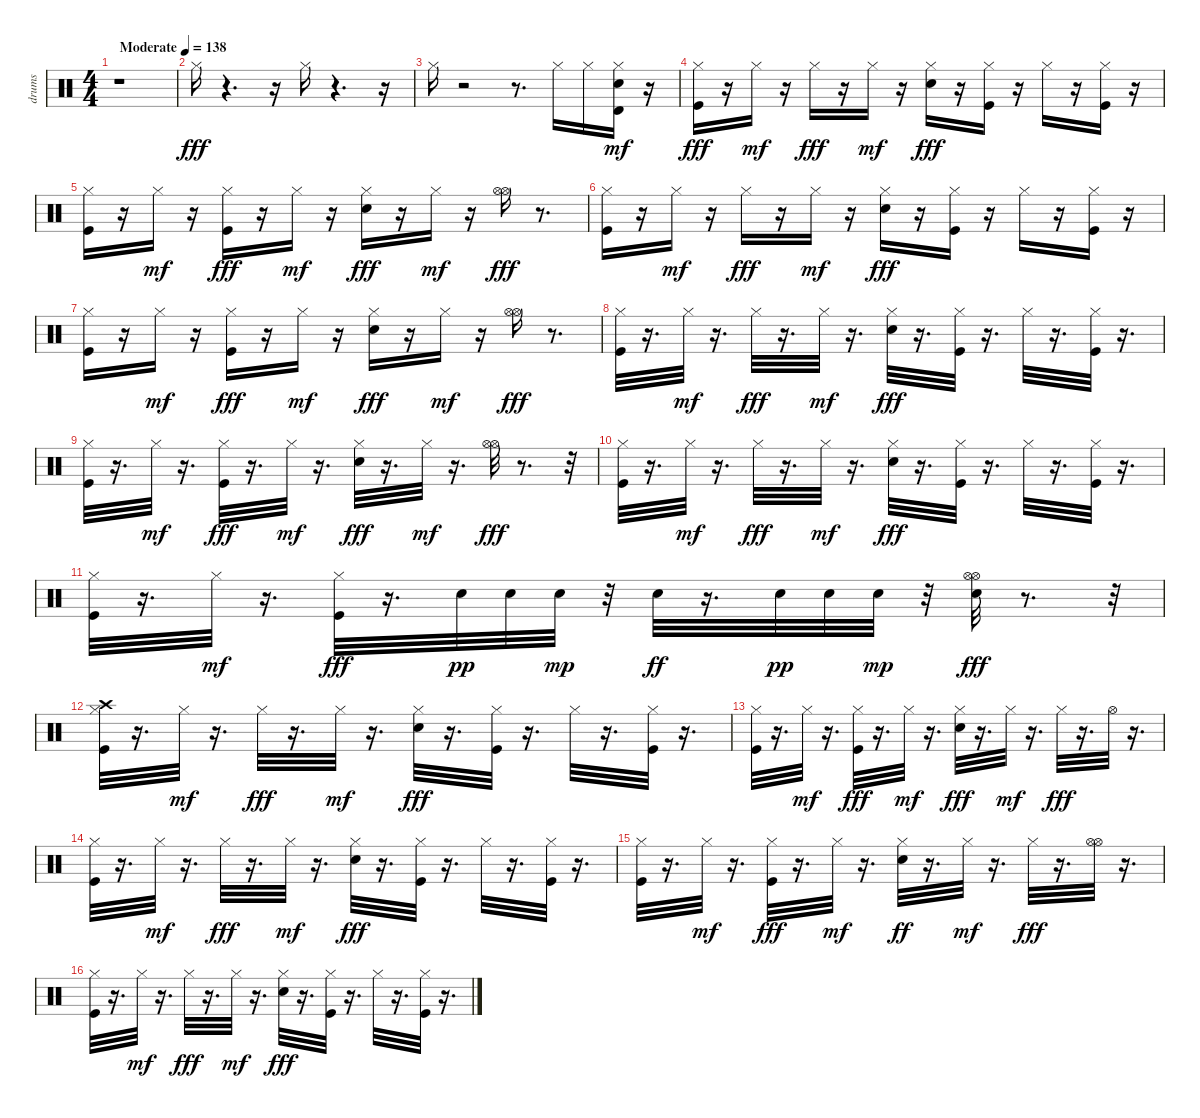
\track ("drums" "drums") {instrument percussion}
\staff {score}
\articulation defaults
\ts (4 4)
\tempo (138 "Moderate")
\clef neutral
\ks c
r.1{dy fff} |
"Hi-Hat (closed)".16 r.4{d} r.16 "Hi-Hat (closed)".16 r.4{d} r.16 |
"Hi-Hat (closed)".16 r.2 r.8{d} "Hi-Hat (closed)".16 "Hi-Hat (closed)".16 ("Metronome (bell)" "Timbale high (hit)" "Hi-Hat (closed)").16{dy mf} r.16 |
("Hi-Hat (closed)" "Kick (hit)").16{dy fff} r.16 "Hi-Hat (closed)".16{dy mf} r.16 "Hi-Hat (closed)".16{dy fff} r.16 "Hi-Hat (closed)".16{dy mf} r.16 ("Metronome (bell)" "Hi-Hat (closed)").16{dy fff} r.16 ("Hi-Hat (closed)" "Kick (hit)").16 r.16 "Hi-Hat (closed)".16 r.16 ("Hi-Hat (closed)" "Kick (hit)").16 r.16 |
("Hi-Hat (closed)" "Kick (hit)").16 r.16 "Hi-Hat (closed)".16{dy mf} r.16 ("Hi-Hat (closed)" "Kick (hit)").16{dy fff} r.16 "Hi-Hat (closed)".16{dy mf} r.16 ("Metronome (bell)" "Hi-Hat (closed)").16{dy fff} r.16 "Hi-Hat (closed)".16{dy mf} r.16 ("Hi-Hat (open)" "Hi-Hat (open)").16{dy fff} r.8{d} |
("Hi-Hat (closed)" "Kick (hit)").16 r.16 "Hi-Hat (closed)".16{dy mf} r.16 "Hi-Hat (closed)".16{dy fff} r.16 "Hi-Hat (closed)".16{dy mf} r.16 ("Metronome (bell)" "Hi-Hat (closed)").16{dy fff} r.16 ("Hi-Hat (closed)" "Kick (hit)").16 r.16 "Hi-Hat (closed)".16 r.16 ("Hi-Hat (closed)" "Kick (hit)").16 r.16 |
("Hi-Hat (closed)" "Kick (hit)").16 r.16 "Hi-Hat (closed)".16{dy mf} r.16 ("Hi-Hat (closed)" "Kick (hit)").16{dy fff} r.16 "Hi-Hat (closed)".16{dy mf} r.16 ("Metronome (bell)" "Hi-Hat (closed)").16{dy fff} r.16 "Hi-Hat (closed)".16{dy mf} r.16 ("Hi-Hat (open)" "Hi-Hat (open)").16{dy fff} r.8{d} |
("Hi-Hat (closed)" "Kick (hit)").32 r.16{d} "Hi-Hat (closed)".32{dy mf} r.16{d} "Hi-Hat (closed)".32{dy fff} r.16{d} "Hi-Hat (closed)".32{dy mf} r.16{d} ("Metronome (bell)" "Hi-Hat (closed)").32{dy fff} r.16{d} ("Hi-Hat (closed)" "Kick (hit)").32 r.16{d} "Hi-Hat (closed)".32 r.16{d} ("Hi-Hat (closed)" "Kick (hit)").32 r.16{d} |
("Hi-Hat (closed)" "Kick (hit)").32 r.16{d} "Hi-Hat (closed)".32{dy mf} r.16{d} ("Hi-Hat (closed)" "Kick (hit)").32{dy fff} r.16{d} "Hi-Hat (closed)".32{dy mf} r.16{d} ("Metronome (bell)" "Hi-Hat (closed)").32{dy fff} r.16{d} "Hi-Hat (closed)".32{dy mf} r.16{d} ("Hi-Hat (open)" "Hi-Hat (open)").32{dy fff} r.8{d} r.32 |
("Hi-Hat (closed)" "Kick (hit)").32 r.16{d} "Hi-Hat (closed)".32{dy mf} r.16{d} "Hi-Hat (closed)".32{dy fff} r.16{d} "Hi-Hat (closed)".32{dy mf} r.16{d} ("Metronome (bell)" "Hi-Hat (closed)").32{dy fff} r.16{d} ("Hi-Hat (closed)" "Kick (hit)").32 r.16{d} "Hi-Hat (closed)".32 r.16{d} ("Hi-Hat (closed)" "Kick (hit)").32 r.16{d} |
("Hi-Hat (closed)" "Kick (hit)").32 r.16{d} "Hi-Hat (closed)".32{dy mf} r.16{d} ("Hi-Hat (closed)" "Kick (hit)").32{dy fff} r.16{d} "Metronome (bell)".32{dy pp} "Metronome (bell)".32 "Metronome (bell)".32{dy mp} r.32 "Metronome (bell)".32{dy ff} r.16{d} "Metronome (bell)".32{dy pp} "Metronome (bell)".32 "Metronome (bell)".32{dy mp} r.32 ("Metronome (bell)" "Hi-Hat (open)" "Hi-Hat (open)").32{dy fff} r.8{d} r.32 |
("Crash high (hit)" "Hi-Hat (closed)" "Kick (hit)").32 r.16{d} "Hi-Hat (closed)".32{dy mf} r.16{d} "Hi-Hat (closed)".32{dy fff} r.16{d} "Hi-Hat (closed)".32{dy mf} r.16{d} ("Metronome (bell)" "Hi-Hat (closed)").32{dy fff} r.16{d} ("Hi-Hat (closed)" "Kick (hit)").32 r.16{d} "Hi-Hat (closed)".32 r.16{d} ("Hi-Hat (closed)" "Kick (hit)").32 r.16{d} |
("Hi-Hat (closed)" "Kick (hit)").32 r.16{d} "Hi-Hat (closed)".32{dy mf} r.16{d} ("Hi-Hat (closed)" "Kick (hit)").32{dy fff} r.16{d} "Hi-Hat (closed)".32{dy mf} r.16{d} ("Metronome (bell)" "Hi-Hat (closed)").32{dy fff} r.16{d} "Hi-Hat (closed)".32{dy mf} r.16{d} "Hi-Hat (closed)".32{dy fff} r.16{d} "Hi-Hat (open)".32 r.16{d} |
("Hi-Hat (closed)" "Kick (hit)").32 r.16{d} "Hi-Hat (closed)".32{dy mf} r.16{d} "Hi-Hat (closed)".32{dy fff} r.16{d} "Hi-Hat (closed)".32{dy mf} r.16{d} ("Metronome (bell)" "Hi-Hat (closed)").32{dy fff} r.16{d} ("Hi-Hat (closed)" "Kick (hit)").32 r.16{d} "Hi-Hat (closed)".32 r.16{d} ("Hi-Hat (closed)" "Kick (hit)").32 r.16{d} |
("Hi-Hat (closed)" "Kick (hit)").32 r.16{d} "Hi-Hat (closed)".32{dy mf} r.16{d} ("Hi-Hat (closed)" "Kick (hit)").32{dy fff} r.16{d} "Hi-Hat (closed)".32{dy mf} r.16{d} ("Hi-Hat (closed)" "Metronome (bell)").32{dy ff} r.16{d} "Hi-Hat (closed)".32{dy mf} r.16{d} "Hi-Hat (closed)".32{dy fff} r.16{d} ("Hi-Hat (open)" "Hi-Hat (open)").32 r.16{d} |
("Hi-Hat (closed)" "Kick (hit)").32 r.16{d} "Hi-Hat (closed)".32{dy mf} r.16{d} "Hi-Hat (closed)".32{dy fff} r.16{d} "Hi-Hat (closed)".32{dy mf} r.16{d} ("Metronome (bell)" "Hi-Hat (closed)").32{dy fff} r.16{d} ("Hi-Hat (closed)" "Kick (hit)").32 r.16{d} "Hi-Hat (closed)".32 r.16{d} ("Hi-Hat (closed)" "Kick (hit)").32 r.16{d}
